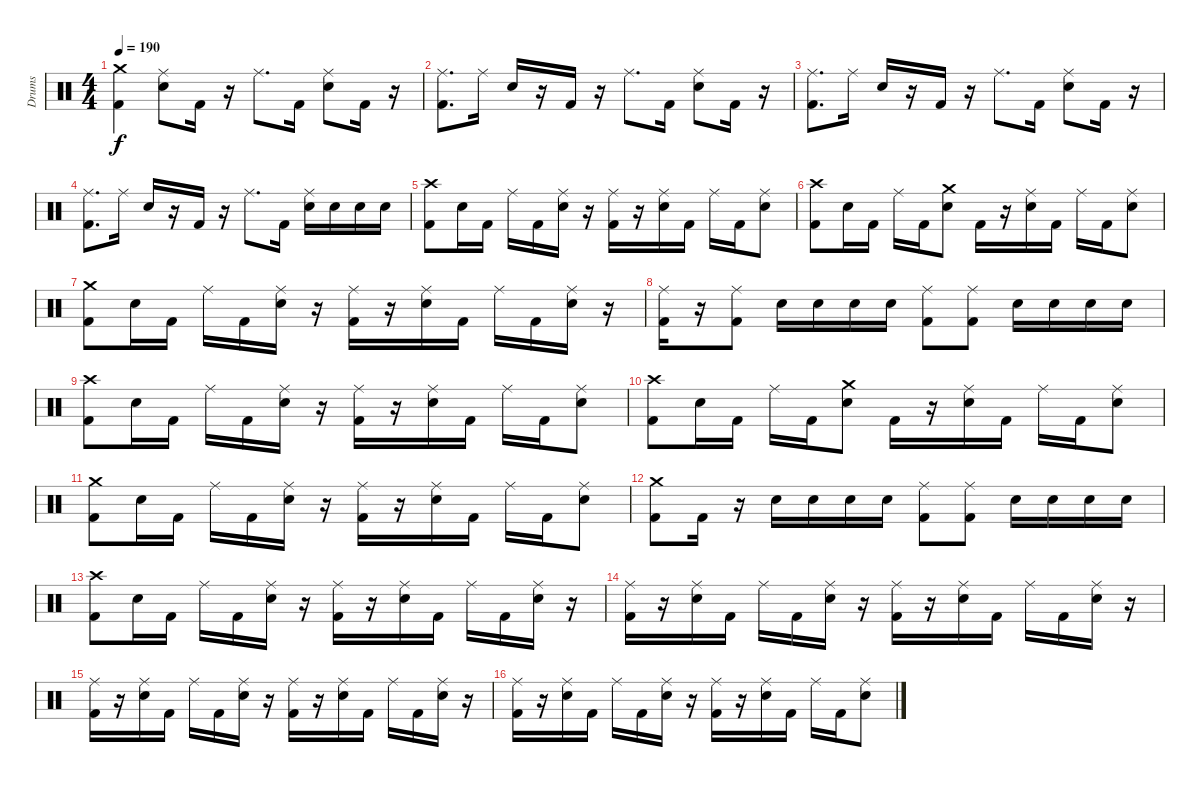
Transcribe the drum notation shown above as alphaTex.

\track ("Drums" "Drums") {instrument percussion}
\staff {score}
\articulation defaults
\ts (4 4)
\tempo 190
\clef neutral
\ks c
("Kick (hit) 2" "Crash medium (hit)").4{dy f} ("Electric Snare (hit)" "Ride (middle)").8 "Kick (hit) 2".16 r.16 "Ride (middle)".8{d} "Kick (hit) 2".16 ("Electric Snare (hit)" "Ride (middle)").8 "Kick (hit) 2".16 r.16 |
("Kick (hit) 2" "Ride (middle)").8{d} "Ride (middle)".16 "Electric Snare (hit)".16 r.16 "Kick (hit) 2".16 r.16 "Ride (middle)".8{d} "Kick (hit) 2".16 ("Electric Snare (hit)" "Ride (middle)").8 "Kick (hit) 2".16 r.16 |
("Kick (hit) 2" "Ride (middle)").8{d} "Ride (middle)".16 "Electric Snare (hit)".16 r.16 "Kick (hit) 2".16 r.16 "Ride (middle)".8{d} "Kick (hit) 2".16 ("Electric Snare (hit)" "Ride (middle)").8 "Kick (hit) 2".16 r.16 |
("Kick (hit) 2" "Ride (middle)").8{d} "Ride (middle)".16 "Electric Snare (hit)".16 r.16 "Kick (hit) 2".16 r.16 "Ride (middle)".8{d} "Kick (hit) 2".16 ("Electric Snare (hit)" "Ride (middle)").16 "Electric Snare (hit)".16 "Electric Snare (hit)".16 "Electric Snare (hit)".16 |
("Kick (hit) 2" "Crash high (hit)").8 "Electric Snare (hit)".16 "Kick (hit) 2".16 "Ride (middle)".16 "Kick (hit) 2".16 ("Electric Snare (hit)" "Ride (middle)").16 r.16 ("Kick (hit) 2" "Ride (middle)").16 r.16 ("Electric Snare (hit)" "Ride (middle)").16 "Kick (hit) 2".16 "Ride (middle)".16 "Kick (hit) 2".16 ("Electric Snare (hit)" "Ride (middle)").8 |
("Kick (hit) 2" "Crash high (hit)").8 "Electric Snare (hit)".16 "Kick (hit) 2".16 "Ride (middle)".16 "Kick (hit) 2".16 ("Electric Snare (hit)" "Crash medium (hit)").8 "Kick (hit) 2".16 r.16 ("Electric Snare (hit)" "Ride (middle)").16 "Kick (hit) 2".16 "Ride (middle)".16 "Kick (hit) 2".16 ("Electric Snare (hit)" "Ride (middle)").8 |
("Kick (hit) 2" "Crash medium (hit)").8 "Electric Snare (hit)".16 "Kick (hit) 2".16 "Ride (middle)".16 "Kick (hit) 2".16 ("Electric Snare (hit)" "Ride (middle)").16 r.16 ("Kick (hit) 2" "Ride (middle)").16 r.16 ("Electric Snare (hit)" "Ride (middle)").16 "Kick (hit) 2".16 "Ride (middle)".16 "Kick (hit) 2".16 ("Electric Snare (hit)" "Ride (middle)").16 r.16 |
("Kick (hit) 2" "Ride (middle)").16 r.16 ("Kick (hit) 2" "Ride (middle)").8 "Electric Snare (hit)".16 "Electric Snare (hit)".16 "Electric Snare (hit)".16 "Electric Snare (hit)".16 ("Kick (hit) 2" "Ride (middle)").8 ("Kick (hit) 2" "Ride (middle)").8 "Electric Snare (hit)".16 "Electric Snare (hit)".16 "Electric Snare (hit)".16 "Electric Snare (hit)".16 |
("Kick (hit) 2" "Crash high (hit)").8 "Electric Snare (hit)".16 "Kick (hit) 2".16 "Ride (middle)".16 "Kick (hit) 2".16 ("Electric Snare (hit)" "Ride (middle)").16 r.16 ("Kick (hit) 2" "Ride (middle)").16 r.16 ("Electric Snare (hit)" "Ride (middle)").16 "Kick (hit) 2".16 "Ride (middle)".16 "Kick (hit) 2".16 ("Electric Snare (hit)" "Ride (middle)").8 |
("Kick (hit) 2" "Crash high (hit)").8 "Electric Snare (hit)".16 "Kick (hit) 2".16 "Ride (middle)".16 "Kick (hit) 2".16 ("Electric Snare (hit)" "Crash medium (hit)").8 "Kick (hit) 2".16 r.16 ("Electric Snare (hit)" "Ride (middle)").16 "Kick (hit) 2".16 "Ride (middle)".16 "Kick (hit) 2".16 ("Electric Snare (hit)" "Ride (middle)").8 |
("Kick (hit) 2" "Crash medium (hit)").8 "Electric Snare (hit)".16 "Kick (hit) 2".16 "Ride (middle)".16 "Kick (hit) 2".16 ("Electric Snare (hit)" "Ride (middle)").16 r.16 ("Kick (hit) 2" "Ride (middle)").16 r.16 ("Electric Snare (hit)" "Ride (middle)").16 "Kick (hit) 2".16 "Ride (middle)".16 "Kick (hit) 2".16 ("Electric Snare (hit)" "Ride (middle)").8 |
("Kick (hit) 2" "Crash medium (hit)").8 "Kick (hit) 2".16 r.16 "Electric Snare (hit)".16 "Electric Snare (hit)".16 "Electric Snare (hit)".16 "Electric Snare (hit)".16 ("Kick (hit) 2" "Ride (middle)").8 ("Kick (hit) 2" "Ride (middle)").8 "Electric Snare (hit)".16 "Electric Snare (hit)".16 "Electric Snare (hit)".16 "Electric Snare (hit)".16 |
("Kick (hit) 2" "Crash high (hit)").8 "Electric Snare (hit)".16 "Kick (hit) 2".16 "Ride (middle)".16 "Kick (hit) 2".16 ("Electric Snare (hit)" "Ride (middle)").16 r.16 ("Kick (hit) 2" "Ride (middle)").16 r.16 ("Electric Snare (hit)" "Ride (middle)").16 "Kick (hit) 2".16 "Ride (middle)".16 "Kick (hit) 2".16 ("Electric Snare (hit)" "Ride (middle)").16 r.16 |
("Kick (hit) 2" "Ride (middle)").16 r.16 ("Electric Snare (hit)" "Ride (middle)").16 "Kick (hit) 2".16 "Ride (middle)".16 "Kick (hit) 2".16 ("Electric Snare (hit)" "Ride (middle)").16 r.16 ("Kick (hit) 2" "Ride (middle)").16 r.16 ("Electric Snare (hit)" "Ride (middle)").16 "Kick (hit) 2".16 "Ride (middle)".16 "Kick (hit) 2".16 ("Electric Snare (hit)" "Ride (middle)").16 r.16 |
("Kick (hit) 2" "Ride (middle)").16 r.16 ("Electric Snare (hit)" "Ride (middle)").16 "Kick (hit) 2".16 "Ride (middle)".16 "Kick (hit) 2".16 ("Electric Snare (hit)" "Ride (middle)").16 r.16 ("Kick (hit) 2" "Ride (middle)").16 r.16 ("Electric Snare (hit)" "Ride (middle)").16 "Kick (hit) 2".16 "Ride (middle)".16 "Kick (hit) 2".16 ("Electric Snare (hit)" "Ride (middle)").16 r.16 |
("Kick (hit) 2" "Ride (middle)").16 r.16 ("Electric Snare (hit)" "Ride (middle)").16 "Kick (hit) 2".16 "Ride (middle)".16 "Kick (hit) 2".16 ("Electric Snare (hit)" "Ride (middle)").16 r.16 ("Kick (hit) 2" "Ride (middle)").16 r.16 ("Electric Snare (hit)" "Ride (middle)").16 "Kick (hit) 2".16 "Ride (middle)".16 "Kick (hit) 2".16 ("Electric Snare (hit)" "Ride (middle)").8
